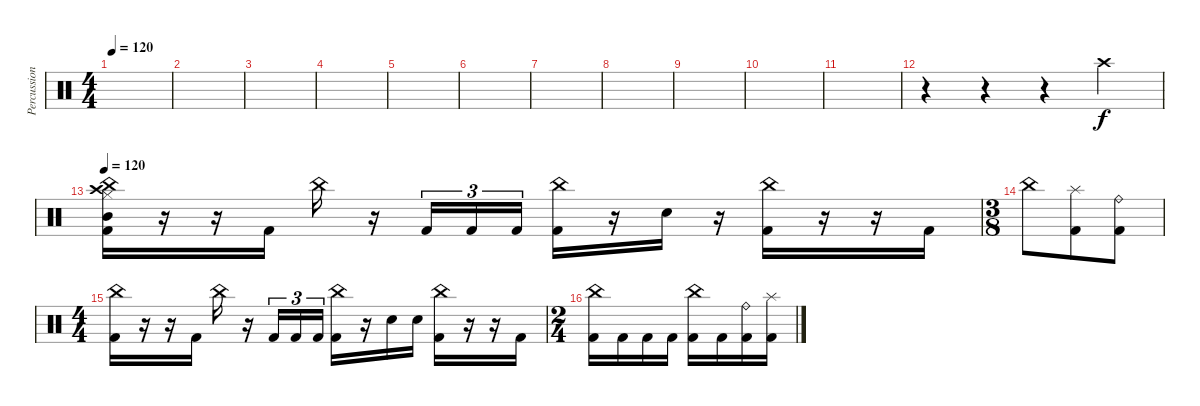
\track ("Percussion" "Percussion") {instrument percussion}
\staff {score}
\articulation defaults
\ts (4 4)
\tempo 120
\tempo 60
\tempo 120
\clef neutral
\ks c
|
|
|
|
|
|
|
|
|
|
|
r.4{volume 0} r.4 r.4 "Crash high (hit)".4{volume 13} |
\tempo 120
("China (hit)" "Crash high (hit)" "Hi-Hat (closed)" "Mid Tom (hit)" "Kick (hit) 2").16 r.16 r.16 "Kick (hit) 2".16 "China (hit)".16 r.16 "Kick (hit) 2".16{tu (3 2)} "Kick (hit) 2".16{tu (3 2)} "Kick (hit) 2".16{tu (3 2)} ("China (hit)" "Kick (hit) 2").16 r.16 "Electric Snare (hit)".16 r.16 ("China (hit)" "Kick (hit) 2").16 r.16 r.16 "Kick (hit) 2".16 |
\ts (3 8)
"China (hit)".8 ("Splash (hit)" "Kick (hit) 2").8 ("Ride (bell)" "Kick (hit) 2").8 |
\ts (4 4)
("China (hit)" "Kick (hit) 2").16 r.16 r.16 "Kick (hit) 2".16 "China (hit)".16 r.16 "Kick (hit) 2".16{tu (3 2)} "Kick (hit) 2".16{tu (3 2)} "Kick (hit) 2".16{tu (3 2)} ("China (hit)" "Kick (hit) 2").16 r.16 "Electric Snare (hit)".16 "Electric Snare (hit)".16 ("China (hit)" "Kick (hit) 2").16 r.16 r.16 "Kick (hit) 2".16 |
\ts (2 4)
("China (hit)" "Kick (hit) 2").16 "Kick (hit) 2".16 "Kick (hit) 2".16 "Kick (hit) 2".16 ("China (hit)" "Kick (hit) 2").16 "Kick (hit) 2".16 ("Ride (bell)" "Kick (hit) 2").16 ("Splash (hit)" "Kick (hit) 2").16
